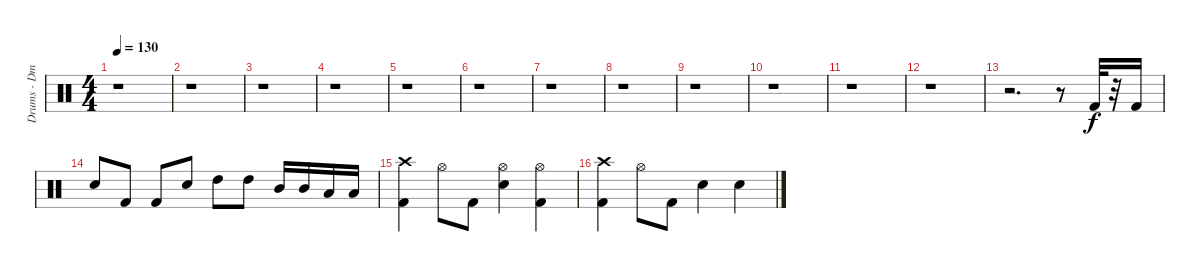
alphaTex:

\track ("Drums - Dmitriy Krivenkov" "Drums - Dm") {instrument percussion}
\staff {score}
\articulation defaults
\ts (4 4)
\tempo 130
\clef neutral
\ks c
r.1{dy f} |
r.1 |
r.1 |
r.1 |
r.1 |
r.1 |
r.1 |
r.1 |
r.1 |
r.1 |
r.1 |
r.1 |
r.2{d} r.8 "Kick (hit) 2".32 r.32 "Kick (hit) 2".16 |
"Electric Snare (hit)".8 "Kick (hit) 2".8 "Kick (hit) 2".8 "Electric Snare (hit)".8 "High Tom (hit)".8 "High Tom (hit)".8 "Mid Tom (hit)".16 "Mid Tom (hit)".16 "Low Tom (hit)".16 "Low Tom (hit)".16 |
("Crash high (hit)" "Kick (hit) 2").4 "Hi-Hat (open)".8 "Kick (hit) 2".8 ("Hi-Hat (open)" "Electric Snare (hit)").4 ("Kick (hit) 2" "Hi-Hat (open)").4 |
("Crash high (hit)" "Kick (hit) 2").4 "Hi-Hat (open)".8 "Kick (hit) 2".8 "Electric Snare (hit)".4 "Electric Snare (hit)".4
